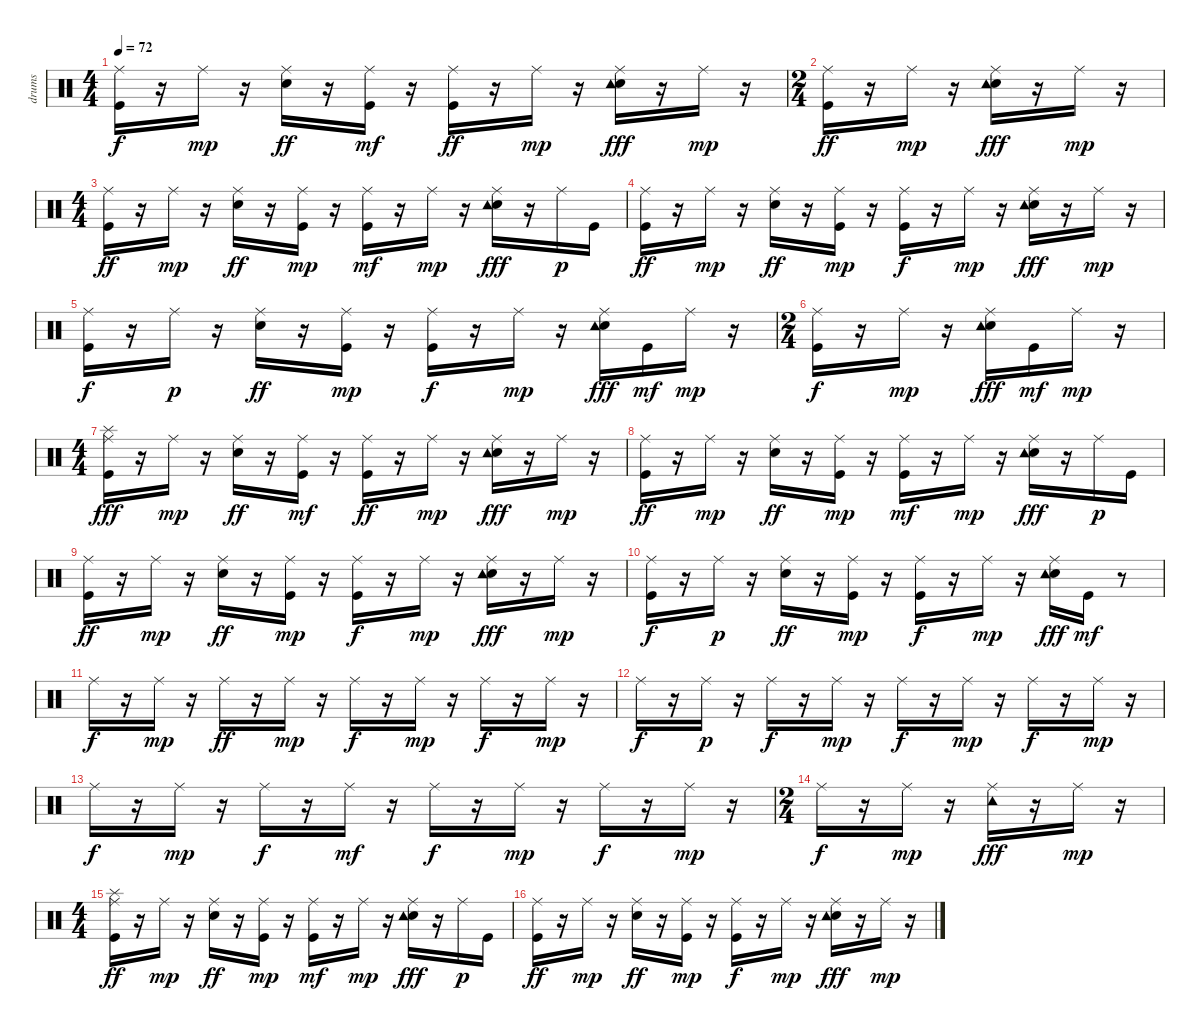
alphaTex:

\track ("drums" "drums") {instrument percussion}
\staff {score}
\articulation defaults
\ts (4 4)
\tempo 72
\clef neutral
\ks c
("Kick (hit)" "Ride (middle)").16{dy f} r.16 "Ride (middle)".16{dy mp} r.16 ("Snare (hit) 2" "Ride (middle)").16{dy ff} r.16 ("Ride (middle)" "Kick (hit)").16{dy mf} r.16 ("Ride (middle)" "Kick (hit)").16{dy ff} r.16 "Ride (middle)".16{dy mp} r.16 ("Snare (hit) 2" "Ride (middle)" "Tambourine (hit)").16{dy fff} r.16 "Ride (middle)".16{dy mp} r.16 |
\ts (2 4)
("Kick (hit)" "Ride (middle)").16{dy ff} r.16 "Ride (middle)".16{dy mp} r.16 ("Ride (middle)" "Snare (hit) 2" "Tambourine (hit)").16{dy fff} r.16 "Ride (middle)".16{dy mp} r.16 |
\ts (4 4)
("Kick (hit)" "Ride (middle)").16{dy ff} r.16 "Ride (middle)".16{dy mp} r.16 ("Snare (hit) 2" "Ride (middle)").16{dy ff} r.16 ("Kick (hit)" "Ride (middle)").16{dy mp} r.16 ("Kick (hit)" "Ride (middle)").16{dy mf} r.16 "Ride (middle)".16{dy mp} r.16 ("Snare (hit) 2" "Ride (middle)" "Tambourine (hit)").16{dy fff} r.16 "Ride (middle)".16{dy p} "Kick (hit)".16 |
("Ride (middle)" "Kick (hit)").16{dy ff} r.16 "Ride (middle)".16{dy mp} r.16 ("Snare (hit) 2" "Ride (middle)").16{dy ff} r.16 ("Kick (hit)" "Ride (middle)").16{dy mp} r.16 ("Kick (hit)" "Ride (middle)").16{dy f} r.16 "Ride (middle)".16{dy mp} r.16 ("Snare (hit) 2" "Ride (middle)" "Tambourine (hit)").16{dy fff} r.16 "Ride (middle)".16{dy mp} r.16 |
("Ride (middle)" "Kick (hit)").16{dy f} r.16 "Ride (middle)".16{dy p} r.16 ("Snare (hit) 2" "Ride (middle)").16{dy ff} r.16 ("Ride (middle)" "Kick (hit)").16{dy mp} r.16 ("Ride (middle)" "Kick (hit)").16{dy f} r.16 "Ride (middle)".16{dy mp} r.16 ("Snare (hit) 2" "Ride (middle)" "Tambourine (hit)").16{dy fff} "Kick (hit)".16{dy mf} "Ride (middle)".16{dy mp} r.16 |
\ts (2 4)
("Kick (hit)" "Ride (middle)").16{dy f} r.16 "Ride (middle)".16{dy mp} r.16 ("Ride (middle)" "Snare (hit) 2" "Tambourine (hit)").16{dy fff} "Kick (hit)".16{dy mf} "Ride (middle)".16{dy mp} r.16 |
\ts (4 4)
("Splash (hit)" "Kick (hit)" "Ride (middle)").16{dy fff} r.16 "Ride (middle)".16{dy mp} r.16 ("Snare (hit) 2" "Ride (middle)").16{dy ff} r.16 ("Ride (middle)" "Kick (hit)").16{dy mf} r.16 ("Ride (middle)" "Kick (hit)").16{dy ff} r.16 "Ride (middle)".16{dy mp} r.16 ("Snare (hit) 2" "Ride (middle)" "Tambourine (hit)").16{dy fff} r.16 "Ride (middle)".16{dy mp} r.16 |
("Kick (hit)" "Ride (middle)").16{dy ff} r.16 "Ride (middle)".16{dy mp} r.16 ("Snare (hit) 2" "Ride (middle)").16{dy ff} r.16 ("Kick (hit)" "Ride (middle)").16{dy mp} r.16 ("Kick (hit)" "Ride (middle)").16{dy mf} r.16 "Ride (middle)".16{dy mp} r.16 ("Snare (hit) 2" "Ride (middle)" "Tambourine (hit)").16{dy fff} r.16 "Ride (middle)".16{dy p} "Kick (hit)".16 |
("Kick (hit)" "Ride (middle)").16{dy ff} r.16 "Ride (middle)".16{dy mp} r.16 ("Snare (hit) 2" "Ride (middle)").16{dy ff} r.16 ("Kick (hit)" "Ride (middle)").16{dy mp} r.16 ("Kick (hit)" "Ride (middle)").16{dy f} r.16 "Ride (middle)".16{dy mp} r.16 ("Snare (hit) 2" "Ride (middle)" "Tambourine (hit)").16{dy fff} r.16 "Ride (middle)".16{dy mp} r.16 |
("Ride (middle)" "Kick (hit)").16{dy f} r.16 "Ride (middle)".16{dy p} r.16 ("Snare (hit) 2" "Ride (middle)").16{dy ff} r.16 ("Ride (middle)" "Kick (hit)").16{dy mp} r.16 ("Ride (middle)" "Kick (hit)").16{dy f} r.16 "Ride (middle)".16{dy mp} r.16 ("Snare (hit) 2" "Ride (middle)" "Tambourine (hit)").16{dy fff} "Kick (hit)".16{dy mf} r.8 |
"Ride (middle)".16{dy f} r.16 "Ride (middle)".16{dy mp} r.16 "Ride (middle)".16{dy ff} r.16 "Ride (middle)".16{dy mp} r.16 "Ride (middle)".16{dy f} r.16 "Ride (middle)".16{dy mp} r.16 "Ride (middle)".16{dy f} r.16 "Ride (middle)".16{dy mp} r.16 |
"Ride (middle)".16{dy f} r.16 "Ride (middle)".16{dy p} r.16 "Ride (middle)".16{dy f} r.16 "Ride (middle)".16{dy mp} r.16 "Ride (middle)".16{dy f} r.16 "Ride (middle)".16{dy mp} r.16 "Ride (middle)".16{dy f} r.16 "Ride (middle)".16{dy mp} r.16 |
"Ride (middle)".16{dy f} r.16 "Ride (middle)".16{dy mp} r.16 "Ride (middle)".16{dy f} r.16 "Ride (middle)".16{dy mf} r.16 "Ride (middle)".16{dy f} r.16 "Ride (middle)".16{dy mp} r.16 "Ride (middle)".16{dy f} r.16 "Ride (middle)".16{dy mp} r.16 |
\ts (2 4)
"Ride (middle)".16{dy f} r.16 "Ride (middle)".16{dy mp} r.16 ("Ride (middle)" "Tambourine (hit)").16{dy fff} r.16 "Ride (middle)".16{dy mp} r.16 |
\ts (4 4)
("Splash (hit)" "Kick (hit)" "Ride (middle)").16{dy ff} r.16 "Ride (middle)".16{dy mp} r.16 ("Snare (hit) 2" "Ride (middle)").16{dy ff} r.16 ("Kick (hit)" "Ride (middle)").16{dy mp} r.16 ("Kick (hit)" "Ride (middle)").16{dy mf} r.16 "Ride (middle)".16{dy mp} r.16 ("Snare (hit) 2" "Ride (middle)" "Tambourine (hit)").16{dy fff} r.16 "Ride (middle)".16{dy p} "Kick (hit)".16 |
("Ride (middle)" "Kick (hit)").16{dy ff} r.16 "Ride (middle)".16{dy mp} r.16 ("Snare (hit) 2" "Ride (middle)").16{dy ff} r.16 ("Kick (hit)" "Ride (middle)").16{dy mp} r.16 ("Kick (hit)" "Ride (middle)").16{dy f} r.16 "Ride (middle)".16{dy mp} r.16 ("Snare (hit) 2" "Ride (middle)" "Tambourine (hit)").16{dy fff} r.16 "Ride (middle)".16{dy mp} r.16
